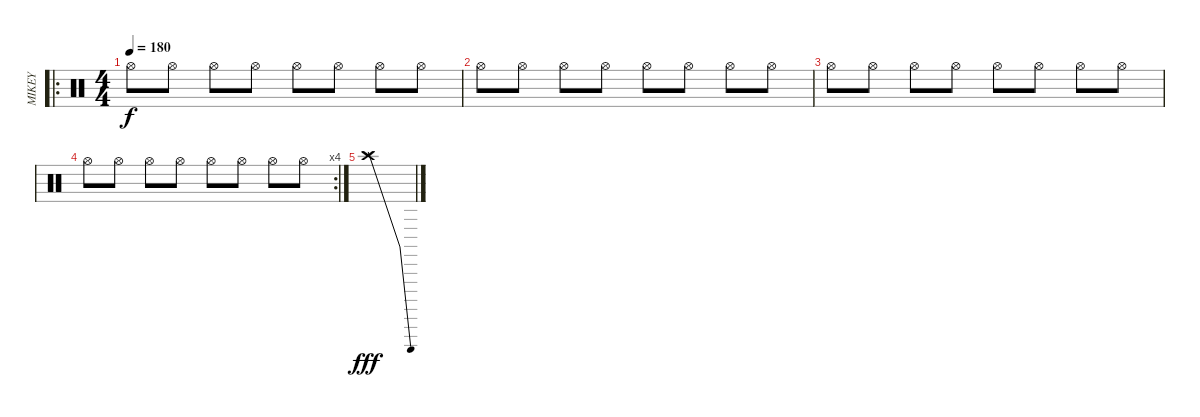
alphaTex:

\track ("MIKEY" "MIKEY") {instrument percussion}
\staff {score}
\articulation defaults
\ro
\ts (4 4)
\tempo 180
\clef neutral
\ks c "Hi-Hat (open)".8{dy f} "Hi-Hat (open)".8 "Hi-Hat (open)".8 "Hi-Hat (open)".8 "Hi-Hat (open)".8 "Hi-Hat (open)".8 "Hi-Hat (open)".8 "Hi-Hat (open)".8
|
"Hi-Hat (open)".8 "Hi-Hat (open)".8 "Hi-Hat (open)".8 "Hi-Hat (open)".8 "Hi-Hat (open)".8 "Hi-Hat (open)".8 "Hi-Hat (open)".8 "Hi-Hat (open)".8 |
"Hi-Hat (open)".8 "Hi-Hat (open)".8 "Hi-Hat (open)".8 "Hi-Hat (open)".8 "Hi-Hat (open)".8 "Hi-Hat (open)".8 "Hi-Hat (open)".8 "Hi-Hat (open)".8 |
\rc 4 "Hi-Hat (open)".8 "Hi-Hat (open)".8 "Hi-Hat (open)".8 "Hi-Hat (open)".8 "Hi-Hat (open)".8 "Hi-Hat (open)".8 "Hi-Hat (open)".8 "Hi-Hat (open)".8
|
"Crash high (hit)"{be (bend 0 0 60 12)}.1{dy fff}
